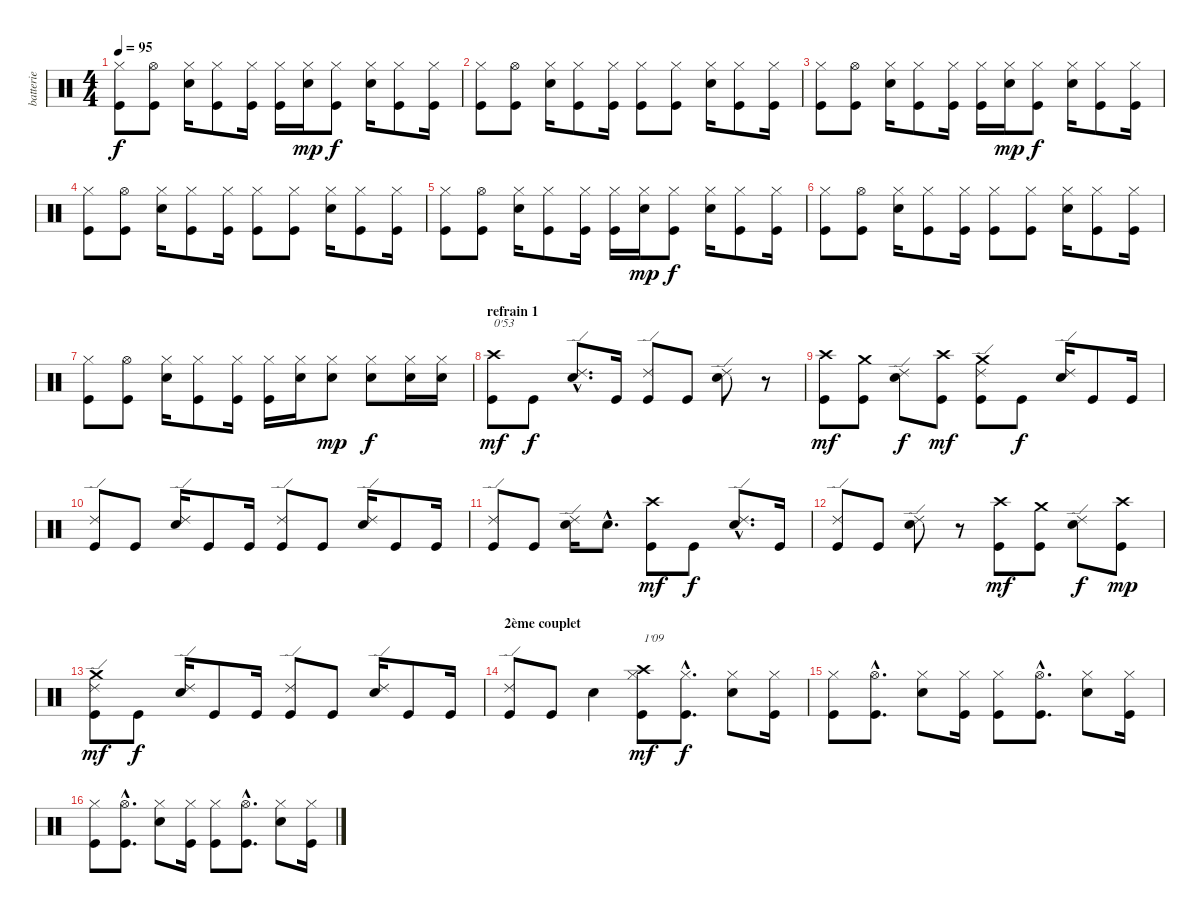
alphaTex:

\track ("batterie" "batterie") {instrument percussion}
\staff {score}
\articulation defaults
\ts (4 4)
\tempo 95
\clef neutral
\ks c
("Hi-Hat (closed)" "Kick (hit)").8{dy f} ("Hi-Hat (open)" "Kick (hit)").8 ("Hi-Hat (closed)" "Electric Snare (hit)").16 ("Hi-Hat (closed)" "Kick (hit)").8 ("Hi-Hat (closed)" "Kick (hit)").16 ("Hi-Hat (closed)" "Kick (hit)").16 ("Hi-Hat (closed)" "Electric Snare (hit)").16{dy mp} ("Hi-Hat (closed)" "Kick (hit)").8{dy f} ("Hi-Hat (closed)" "Electric Snare (hit)").16 ("Hi-Hat (closed)" "Kick (hit)").8 ("Hi-Hat (closed)" "Kick (hit)").16 |
("Hi-Hat (closed)" "Kick (hit)").8 ("Hi-Hat (open)" "Kick (hit)").8 ("Hi-Hat (closed)" "Electric Snare (hit)").16 ("Hi-Hat (closed)" "Kick (hit)").8 ("Hi-Hat (closed)" "Kick (hit)").16 ("Hi-Hat (closed)" "Kick (hit)").8 ("Hi-Hat (closed)" "Kick (hit)").8 ("Hi-Hat (closed)" "Electric Snare (hit)").16 ("Hi-Hat (closed)" "Kick (hit)").8 ("Hi-Hat (closed)" "Kick (hit)").16 |
("Hi-Hat (closed)" "Kick (hit)").8 ("Hi-Hat (open)" "Kick (hit)").8 ("Hi-Hat (closed)" "Electric Snare (hit)").16 ("Hi-Hat (closed)" "Kick (hit)").8 ("Hi-Hat (closed)" "Kick (hit)").16 ("Hi-Hat (closed)" "Kick (hit)").16 ("Hi-Hat (closed)" "Electric Snare (hit)").16{dy mp} ("Hi-Hat (closed)" "Kick (hit)").8{dy f} ("Hi-Hat (closed)" "Electric Snare (hit)").16 ("Hi-Hat (closed)" "Kick (hit)").8 ("Hi-Hat (closed)" "Kick (hit)").16 |
("Hi-Hat (closed)" "Kick (hit)").8 ("Hi-Hat (open)" "Kick (hit)").8 ("Hi-Hat (closed)" "Electric Snare (hit)").16 ("Hi-Hat (closed)" "Kick (hit)").8 ("Hi-Hat (closed)" "Kick (hit)").16 ("Hi-Hat (closed)" "Kick (hit)").8 ("Hi-Hat (closed)" "Kick (hit)").8 ("Hi-Hat (closed)" "Electric Snare (hit)").16 ("Hi-Hat (closed)" "Kick (hit)").8 ("Hi-Hat (closed)" "Kick (hit)").16 |
("Hi-Hat (closed)" "Kick (hit)").8 ("Hi-Hat (open)" "Kick (hit)").8 ("Hi-Hat (closed)" "Electric Snare (hit)").16 ("Hi-Hat (closed)" "Kick (hit)").8 ("Hi-Hat (closed)" "Kick (hit)").16 ("Hi-Hat (closed)" "Kick (hit)").16 ("Hi-Hat (closed)" "Electric Snare (hit)").16{dy mp} ("Hi-Hat (closed)" "Kick (hit)").8{dy f} ("Hi-Hat (closed)" "Electric Snare (hit)").16 ("Hi-Hat (closed)" "Kick (hit)").8 ("Hi-Hat (closed)" "Kick (hit)").16 |
("Hi-Hat (closed)" "Kick (hit)").8 ("Hi-Hat (open)" "Kick (hit)").8 ("Hi-Hat (closed)" "Electric Snare (hit)").16 ("Hi-Hat (closed)" "Kick (hit)").8 ("Hi-Hat (closed)" "Kick (hit)").16 ("Hi-Hat (closed)" "Kick (hit)").8 ("Hi-Hat (closed)" "Kick (hit)").8 ("Hi-Hat (closed)" "Electric Snare (hit)").16 ("Hi-Hat (closed)" "Kick (hit)").8 ("Hi-Hat (closed)" "Kick (hit)").16 |
("Hi-Hat (closed)" "Kick (hit)").8 ("Hi-Hat (open)" "Kick (hit)").8 ("Hi-Hat (closed)" "Electric Snare (hit)").16 ("Hi-Hat (closed)" "Kick (hit)").8 ("Hi-Hat (closed)" "Kick (hit)").16 ("Hi-Hat (closed)" "Kick (hit)").16 ("Hi-Hat (closed)" "Electric Snare (hit)").16 ("Hi-Hat (closed)" "Electric Snare (hit)").8{dy mp} ("Hi-Hat (closed)" "Electric Snare (hit)").8{dy f} ("Hi-Hat (closed)" "Electric Snare (hit)").16 ("Hi-Hat (closed)" "Electric Snare (hit)").16 |
\section ("" "refrain 1")
("Kick (hit)" "Crash high (hit)").8{txt "0'53" dy mf} "Kick (hit)".8{dy f} ("Ride (edge) 2"{hac} "Electric Snare (hit)"{hac}).8{d} "Kick (hit)".16 ("Ride (edge) 2" "Kick (hit)").8 "Kick (hit)".8 ("Ride (edge) 2" "Electric Snare (hit)").8 r.8 |
("Kick (hit)" "Crash high (hit)").8{dy mf} ("Kick (hit)" "Crash medium (hit)").8 ("Ride (edge) 2" "Electric Snare (hit)").8{dy f} ("Kick (hit)" "Crash high (hit)").8{dy mf} ("Ride (edge) 2" "Kick (hit)" "Crash medium (hit)").8 "Kick (hit)".8{dy f} ("Ride (edge) 2" "Electric Snare (hit)").16 "Kick (hit)".8 "Kick (hit)".16 |
("Ride (edge) 2" "Kick (hit)").8 "Kick (hit)".8 ("Ride (edge) 2" "Electric Snare (hit)").16 "Kick (hit)".8 "Kick (hit)".16 ("Ride (edge) 2" "Kick (hit)").8 "Kick (hit)".8 ("Ride (edge) 2" "Electric Snare (hit)").16 "Kick (hit)".8 "Kick (hit)".16 |
("Ride (edge) 2" "Kick (hit)").8 "Kick (hit)".8 ("Ride (edge) 2" "Electric Snare (hit)").16 "Electric Snare (hit)"{hac}.8{d} ("Kick (hit)" "Crash high (hit)").8{dy mf} "Kick (hit)".8{dy f} ("Ride (edge) 2"{hac} "Electric Snare (hit)"{hac}).8{d} "Kick (hit)".16 |
("Ride (edge) 2" "Kick (hit)").8 "Kick (hit)".8 ("Ride (edge) 2" "Electric Snare (hit)").8 r.8 ("Kick (hit)" "Crash high (hit)").8{dy mf} ("Kick (hit)" "Crash medium (hit)").8 ("Ride (edge) 2" "Electric Snare (hit)").8{dy f} ("Kick (hit)" "Crash high (hit)").8{dy mp} |
("Ride (edge) 2" "Kick (hit)" "Crash medium (hit)").8{dy mf} "Kick (hit)".8{dy f} ("Ride (edge) 2" "Electric Snare (hit)").16 "Kick (hit)".8 "Kick (hit)".16 ("Ride (edge) 2" "Kick (hit)").8 "Kick (hit)".8 ("Ride (edge) 2" "Electric Snare (hit)").16 "Kick (hit)".8 "Kick (hit)".16 |
\section ("" "2ème couplet")
("Ride (edge) 2" "Kick (hit)").8 "Kick (hit)".8 "Electric Snare (hit)".4 ("Hi-Hat (closed)" "Kick (hit)" "Crash high (hit)").8{txt "1'09" dy mf} ("Hi-Hat (closed)"{hac} "Kick (hit)"{hac}).8{d dy f} ("Hi-Hat (closed)" "Electric Snare (hit)").8 ("Hi-Hat (closed)" "Kick (hit)").16 |
("Hi-Hat (closed)" "Kick (hit)").8 ("Hi-Hat (open)"{hac} "Kick (hit)"{hac}).8{d} ("Hi-Hat (closed)" "Electric Snare (hit)").8 ("Hi-Hat (closed)" "Kick (hit)").16 ("Hi-Hat (closed)" "Kick (hit)").8 ("Hi-Hat (open)"{hac} "Kick (hit)"{hac}).8{d} ("Hi-Hat (closed)" "Electric Snare (hit)").8 ("Hi-Hat (closed)" "Kick (hit)").16 |
("Hi-Hat (closed)" "Kick (hit)").8 ("Hi-Hat (open)"{hac} "Kick (hit)"{hac}).8{d} ("Hi-Hat (closed)" "Electric Snare (hit)").8 ("Hi-Hat (closed)" "Kick (hit)").16 ("Hi-Hat (closed)" "Kick (hit)").8 ("Hi-Hat (open)"{hac} "Kick (hit)"{hac}).8{d} ("Hi-Hat (closed)" "Electric Snare (hit)").8 ("Hi-Hat (closed)" "Kick (hit)").16
